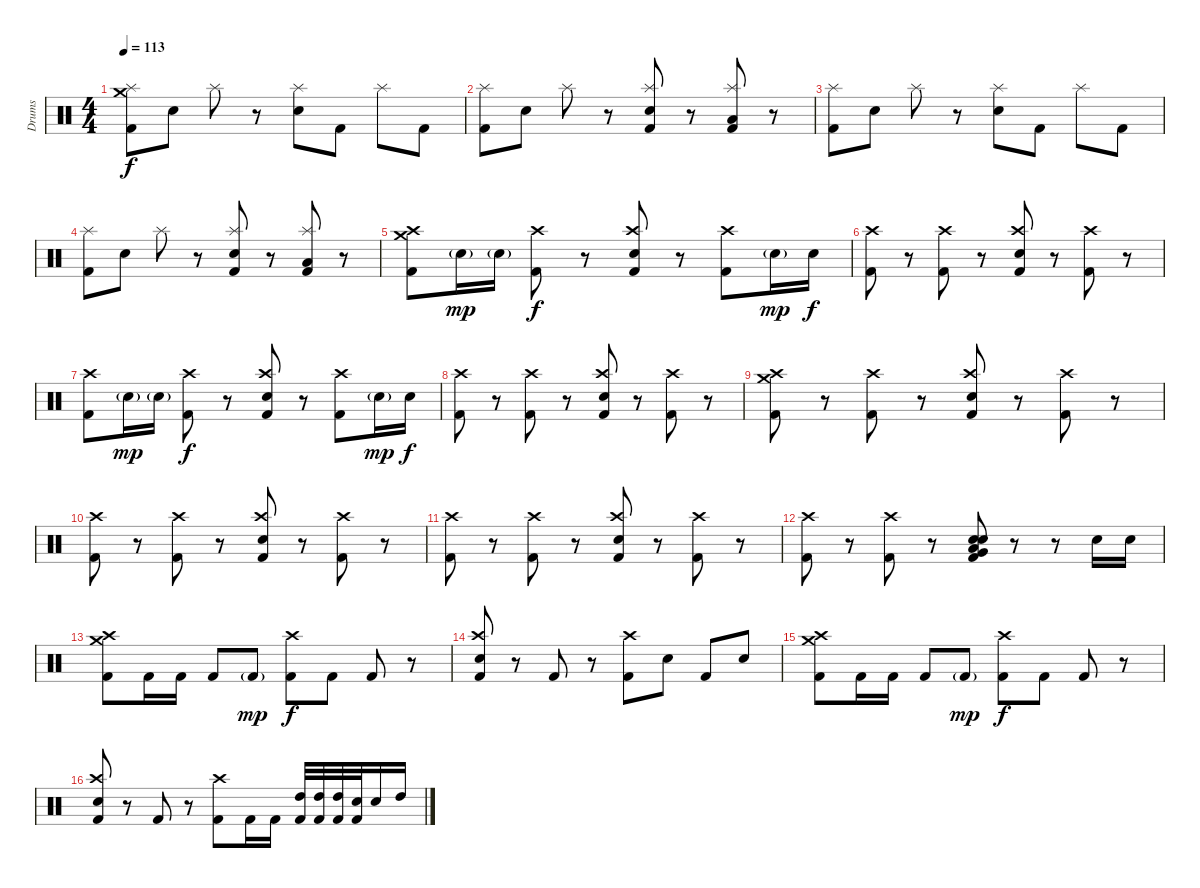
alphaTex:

\track ("Drums" "Drums") {instrument percussion}
\staff {score}
\articulation defaults
\ts (4 4)
\tempo 113
\clef neutral
\ks c
("Kick (hit) 2" "Splash (hit)" "Crash medium (hit)").8{dy f} "Electric Snare (hit)".8 "Splash (hit)".8 r.8 ("Electric Snare (hit)" "Splash (hit)").8 "Kick (hit) 2".8 "Splash (hit)".8 "Kick (hit) 2".8 |
("Kick (hit) 2" "Splash (hit)").8 "Electric Snare (hit)".8 "Splash (hit)".8 r.8 ("Kick (hit) 2" "Electric Snare (hit)" "Splash (hit)").8 r.8 ("Kick (hit) 2" "Low Floor Tom (hit)" "Splash (hit)").8 r.8 |
("Kick (hit) 2" "Splash (hit)").8 "Electric Snare (hit)".8 "Splash (hit)".8 r.8 ("Electric Snare (hit)" "Splash (hit)").8 "Kick (hit) 2".8 "Splash (hit)".8 "Kick (hit) 2".8 |
("Kick (hit) 2" "Splash (hit)").8 "Electric Snare (hit)".8 "Splash (hit)".8 r.8 ("Kick (hit) 2" "Electric Snare (hit)" "Splash (hit)").8 r.8 ("Kick (hit) 2" "Low Floor Tom (hit)" "Splash (hit)").8 r.8 |
("Kick (hit) 2" "Crash high (hit)" "Crash medium (hit)").8 "Snare (hit) 2"{g}.16{dy mp} "Snare (hit) 2"{g}.16 ("Kick (hit) 2" "Crash high (hit)").8{dy f} r.8 ("Kick (hit) 2" "Snare (hit) 2" "Crash high (hit)").8 r.8 ("Kick (hit) 2" "Crash high (hit)").8 "Snare (hit) 2"{g}.16{dy mp} "Snare (hit) 2".16{dy f} |
("Kick (hit) 2" "Crash high (hit)").8 r.8 ("Kick (hit) 2" "Crash high (hit)").8 r.8 ("Kick (hit) 2" "Snare (hit) 2" "Crash high (hit)").8 r.8 ("Kick (hit) 2" "Crash high (hit)").8 r.8 |
("Kick (hit) 2" "Crash high (hit)").8 "Snare (hit) 2"{g}.16{dy mp} "Snare (hit) 2"{g}.16 ("Kick (hit) 2" "Crash high (hit)").8{dy f} r.8 ("Kick (hit) 2" "Snare (hit) 2" "Crash high (hit)").8 r.8 ("Kick (hit) 2" "Crash high (hit)").8 "Snare (hit) 2"{g}.16{dy mp} "Snare (hit) 2".16{dy f} |
("Kick (hit) 2" "Crash high (hit)").8 r.8 ("Kick (hit) 2" "Crash high (hit)").8 r.8 ("Kick (hit) 2" "Snare (hit) 2" "Crash high (hit)").8 r.8 ("Kick (hit) 2" "Crash high (hit)").8 r.8 |
("Kick (hit) 2" "Crash high (hit)" "Crash medium (hit)").8 r.8 ("Kick (hit) 2" "Crash high (hit)").8 r.8 ("Kick (hit) 2" "Snare (hit) 2" "Crash high (hit)").8 r.8 ("Kick (hit) 2" "Crash high (hit)").8 r.8 |
("Kick (hit) 2" "Crash high (hit)").8 r.8 ("Kick (hit) 2" "Crash high (hit)").8 r.8 ("Kick (hit) 2" "Snare (hit) 2" "Crash high (hit)").8 r.8 ("Kick (hit) 2" "Crash high (hit)").8 r.8 |
("Kick (hit) 2" "Crash high (hit)").8 r.8 ("Kick (hit) 2" "Crash high (hit)").8 r.8 ("Kick (hit) 2" "Snare (hit) 2" "Crash high (hit)").8 r.8 ("Kick (hit) 2" "Crash high (hit)").8 r.8 |
("Kick (hit) 2" "Crash high (hit)").8 r.8 ("Kick (hit) 2" "Crash high (hit)").8 r.8 ("Kick (hit) 2" "Very Low Tom (hit)" "Snare (hit) 2" "Electric Snare (hit)" "Low Floor Tom (hit)").8 r.8 r.8 "Snare (hit) 2".16 "Snare (hit) 2".16 |
("Kick (hit) 2" "Crash high (hit)" "Crash medium (hit)").8 "Kick (hit) 2".16 "Kick (hit) 2".16 "Kick (hit) 2".8 "Kick (hit) 2"{g}.8{dy mp} ("Kick (hit) 2" "Crash high (hit)").8{dy f} "Kick (hit) 2".8 "Kick (hit) 2".8 r.8 |
("Kick (hit) 2" "Snare (hit) 2" "Crash high (hit)").8 r.8 "Kick (hit) 2".8 r.8 ("Kick (hit) 2" "Crash high (hit)").8 "Snare (hit) 2".8 "Kick (hit) 2".8 "Electric Snare (hit)".8 |
("Kick (hit) 2" "Crash high (hit)" "Crash medium (hit)").8 "Kick (hit) 2".16 "Kick (hit) 2".16 "Kick (hit) 2".8 "Kick (hit) 2"{g}.8{dy mp} ("Kick (hit) 2" "Crash high (hit)").8{dy f} "Kick (hit) 2".8 "Kick (hit) 2".8 r.8 |
("Kick (hit) 2" "Snare (hit) 2" "Crash high (hit)").8 r.8 "Kick (hit) 2".8 r.8 ("Kick (hit) 2" "Crash high (hit)").8 "Kick (hit) 2".16 "Kick (hit) 2".16 ("Kick (hit) 2" "High Tom (hit)").32 ("Kick (hit) 2" "High Tom (hit)").32 ("Kick (hit) 2" "High Tom (hit)").32 ("Kick (hit) 2" "Electric Snare (hit)").32 "Electric Snare (hit)".16 "High Tom (hit)".16
